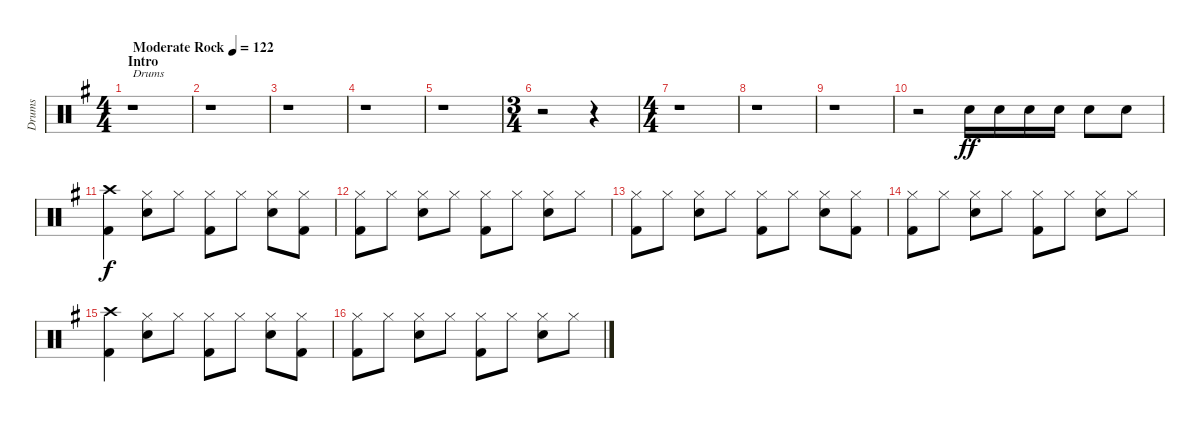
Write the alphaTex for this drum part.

\track ("Drums" "Drums") {instrument percussion}
\staff {score}
\articulation defaults
\ts (4 4)
\section ("" "Intro")
\tempo (122 "Moderate Rock")
\clef neutral
\ks eminor
r.1{txt "Drums" dy ff} |
r.1 |
r.1 |
r.1 |
r.1 |
\ts (3 4)
r.2 r.4 |
\ts (4 4)
r.1 |
r.1 |
r.1 |
r.2 "Electric Snare (hit)".16 "Electric Snare (hit)".16 "Electric Snare (hit)".16 "Electric Snare (hit)".16 "Electric Snare (hit)".8 "Electric Snare (hit)".8 |
("Crash high (hit)" "Kick (hit) 2").4{dy f} ("Hi-Hat (closed)" "Electric Snare (hit)").8 "Hi-Hat (closed)".8 ("Hi-Hat (closed)" "Kick (hit) 2").8 "Hi-Hat (closed)".8 ("Hi-Hat (closed)" "Electric Snare (hit)").8 ("Hi-Hat (closed)" "Kick (hit) 2").8 |
("Hi-Hat (closed)" "Kick (hit) 2").8 "Hi-Hat (closed)".8 ("Hi-Hat (closed)" "Electric Snare (hit)").8 "Hi-Hat (closed)".8 ("Hi-Hat (closed)" "Kick (hit) 2").8 "Hi-Hat (closed)".8 ("Hi-Hat (closed)" "Electric Snare (hit)").8 "Hi-Hat (closed)".8 |
("Hi-Hat (closed)" "Kick (hit) 2").8 "Hi-Hat (closed)".8 ("Hi-Hat (closed)" "Electric Snare (hit)").8 "Hi-Hat (closed)".8 ("Hi-Hat (closed)" "Kick (hit) 2").8 "Hi-Hat (closed)".8 ("Hi-Hat (closed)" "Electric Snare (hit)").8 ("Hi-Hat (closed)" "Kick (hit) 2").8 |
("Hi-Hat (closed)" "Kick (hit) 2").8 "Hi-Hat (closed)".8 ("Hi-Hat (closed)" "Electric Snare (hit)").8 "Hi-Hat (closed)".8 ("Hi-Hat (closed)" "Kick (hit) 2").8 "Hi-Hat (closed)".8 ("Hi-Hat (closed)" "Electric Snare (hit)").8 "Hi-Hat (closed)".8 |
("Crash high (hit)" "Kick (hit) 2").4 ("Hi-Hat (closed)" "Electric Snare (hit)").8 "Hi-Hat (closed)".8 ("Hi-Hat (closed)" "Kick (hit) 2").8 "Hi-Hat (closed)".8 ("Hi-Hat (closed)" "Electric Snare (hit)").8 ("Hi-Hat (closed)" "Kick (hit) 2").8 |
("Hi-Hat (closed)" "Kick (hit) 2").8 "Hi-Hat (closed)".8 ("Hi-Hat (closed)" "Electric Snare (hit)").8 "Hi-Hat (closed)".8 ("Hi-Hat (closed)" "Kick (hit) 2").8 "Hi-Hat (closed)".8 ("Hi-Hat (closed)" "Electric Snare (hit)").8 "Hi-Hat (closed)".8
